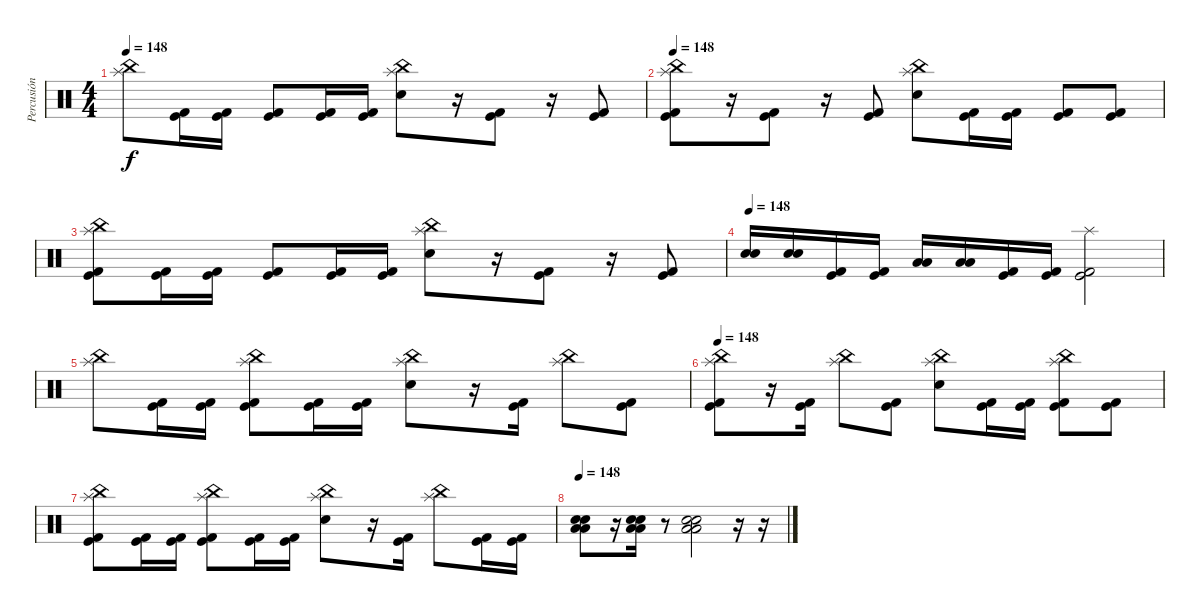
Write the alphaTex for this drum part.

\track ("Percusión" "Percusión") {instrument percussion}
\staff {score}
\articulation defaults
\ts (4 4)
\tempo 148
\clef neutral
\ks c
("Splash (hit)" "China (hit)").8{dy f} ("Kick (hit)" "Kick (hit) 2").16 ("Kick (hit)" "Kick (hit) 2").16 ("Kick (hit)" "Kick (hit) 2").8 ("Kick (hit)" "Kick (hit) 2").16 ("Kick (hit)" "Kick (hit) 2").16 ("Splash (hit)" "China (hit)" "Electric Snare (hit)").8 r.16 ("Kick (hit)" "Kick (hit) 2").8 r.16 ("Kick (hit)" "Kick (hit) 2").8 |
\tempo 148
("Splash (hit)" "China (hit)" "Kick (hit)" "Kick (hit) 2").8 r.16 ("Kick (hit)" "Kick (hit) 2").8 r.16 ("Kick (hit)" "Kick (hit) 2").8 ("Splash (hit)" "China (hit)" "Electric Snare (hit)").8 ("Kick (hit)" "Kick (hit) 2").16 ("Kick (hit)" "Kick (hit) 2").16 ("Kick (hit)" "Kick (hit) 2").8 ("Kick (hit)" "Kick (hit) 2").8 |
("Splash (hit)" "China (hit)" "Kick (hit) 2" "Kick (hit)").8 ("Kick (hit)" "Kick (hit) 2").16 ("Kick (hit)" "Kick (hit) 2").16 ("Kick (hit)" "Kick (hit) 2").8 ("Kick (hit)" "Kick (hit) 2").16 ("Kick (hit)" "Kick (hit) 2").16 ("Splash (hit)" "China (hit)" "Electric Snare (hit)").8 r.16 ("Kick (hit)" "Kick (hit) 2").8 r.16 ("Kick (hit)" "Kick (hit) 2").8 |
\tempo 148
("Electric Snare (hit)" "Electric Snare (hit)").16 ("Electric Snare (hit)" "Electric Snare (hit)").16 ("Kick (hit)" "Kick (hit) 2").16 ("Kick (hit)" "Kick (hit) 2").16 ("Low Floor Tom (hit)" "Low Floor Tom (hit)").16 ("Low Floor Tom (hit)" "Low Floor Tom (hit)").16 ("Kick (hit)" "Kick (hit) 2").16 ("Kick (hit)" "Kick (hit) 2").16 ("Splash (hit)" "Kick (hit)" "Kick (hit) 2").2 |
("Splash (hit)" "China (hit)").8 ("Kick (hit)" "Kick (hit) 2").16 ("Kick (hit)" "Kick (hit) 2").16 ("Splash (hit)" "China (hit)" "Kick (hit)" "Kick (hit) 2").8 ("Kick (hit)" "Kick (hit) 2").16 ("Kick (hit)" "Kick (hit) 2").16 ("Splash (hit)" "China (hit)" "Electric Snare (hit)").8 r.16 ("Kick (hit)" "Kick (hit) 2").16 ("Splash (hit)" "China (hit)").8 ("Kick (hit)" "Kick (hit) 2").8 |
\tempo 148
("Splash (hit)" "China (hit)" "Kick (hit)" "Kick (hit) 2").8 r.16 ("Kick (hit)" "Kick (hit) 2").16 ("Splash (hit)" "China (hit)").8 ("Kick (hit)" "Kick (hit) 2").8 ("Splash (hit)" "China (hit)" "Electric Snare (hit)").8 ("Kick (hit)" "Kick (hit) 2").16 ("Kick (hit)" "Kick (hit) 2").16 ("Splash (hit)" "China (hit)" "Kick (hit)" "Kick (hit) 2").8 ("Kick (hit)" "Kick (hit) 2").8 |
("Splash (hit)" "China (hit)" "Kick (hit) 2" "Kick (hit)").8 ("Kick (hit)" "Kick (hit) 2").16 ("Kick (hit)" "Kick (hit) 2").16 ("Splash (hit)" "China (hit)" "Kick (hit)" "Kick (hit) 2").8 ("Kick (hit)" "Kick (hit) 2").16 ("Kick (hit)" "Kick (hit) 2").16 ("Splash (hit)" "China (hit)" "Electric Snare (hit)").8 r.16 ("Kick (hit)" "Kick (hit) 2").16 ("Splash (hit)" "China (hit)").8 ("Kick (hit)" "Kick (hit) 2").16 ("Kick (hit)" "Kick (hit) 2").16 |
\tempo 148
("Low Floor Tom (hit)" "Low Floor Tom (hit)" "Electric Snare (hit)" "Electric Snare (hit)").8 r.16 ("Low Floor Tom (hit)" "Low Floor Tom (hit)" "Electric Snare (hit)" "Electric Snare (hit)").16 r.8 ("Low Floor Tom (hit)" "Low Floor Tom (hit)" "Electric Snare (hit)" "Electric Snare (hit)").2 r.16 r.16
